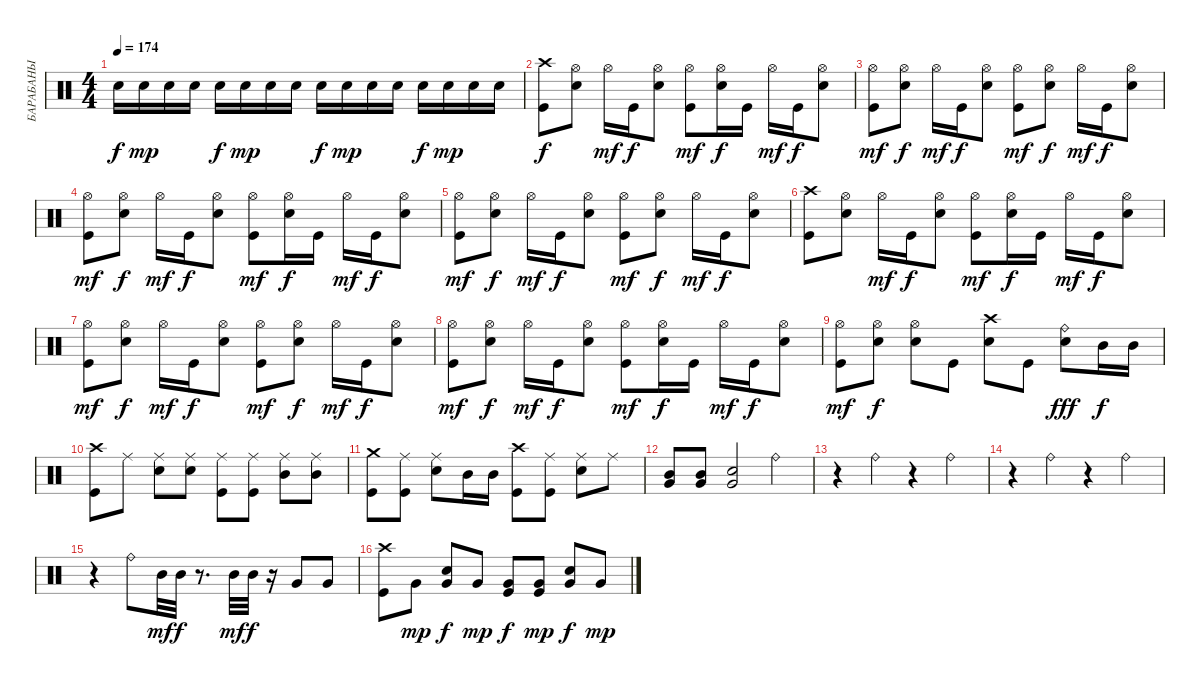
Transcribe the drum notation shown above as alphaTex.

\track ("БАРАБАНЫ" "БАРАБАНЫ") {instrument percussion}
\staff {score}
\articulation defaults
\ts (4 4)
\tempo 174
\clef neutral
\ks c "Electric Snare (hit)".16{dy f} "Electric Snare (hit)".16{dy mp} "Electric Snare (hit)".16 "Electric Snare (hit)".16 "Electric Snare (hit)".16{dy f} "Electric Snare (hit)".16{dy mp} "Electric Snare (hit)".16 "Electric Snare (hit)".16 "Electric Snare (hit)".16{dy f} "Electric Snare (hit)".16{dy mp} "Electric Snare (hit)".16 "Electric Snare (hit)".16 "Electric Snare (hit)".16{dy f} "Electric Snare (hit)".16{dy mp} "Electric Snare (hit)".16 "Electric Snare (hit)".16
|
("Crash high (hit)" "Kick (hit)").8{dy f} ("Hi-Hat (open)" "Electric Snare (hit)").8 "Hi-Hat (open)".16{dy mf} "Kick (hit)".16{dy f} ("Hi-Hat (open)" "Electric Snare (hit)").8 ("Hi-Hat (open)" "Kick (hit)").8{dy mf} ("Hi-Hat (open)" "Electric Snare (hit)").16{dy f} "Kick (hit)".16 "Hi-Hat (open)".16{dy mf} "Kick (hit)".16{dy f} ("Hi-Hat (open)" "Electric Snare (hit)").8 |
("Hi-Hat (open)" "Kick (hit)").8{dy mf} ("Hi-Hat (open)" "Electric Snare (hit)").8{dy f} "Hi-Hat (open)".16{dy mf} "Kick (hit)".16{dy f} ("Hi-Hat (open)" "Electric Snare (hit)").8 ("Hi-Hat (open)" "Kick (hit)").8{dy mf} ("Hi-Hat (open)" "Electric Snare (hit)").8{dy f} "Hi-Hat (open)".16{dy mf} "Kick (hit)".16{dy f} ("Hi-Hat (open)" "Electric Snare (hit)").8 |
("Hi-Hat (open)" "Kick (hit)").8{dy mf} ("Hi-Hat (open)" "Electric Snare (hit)").8{dy f} "Hi-Hat (open)".16{dy mf} "Kick (hit)".16{dy f} ("Hi-Hat (open)" "Electric Snare (hit)").8 ("Hi-Hat (open)" "Kick (hit)").8{dy mf} ("Hi-Hat (open)" "Electric Snare (hit)").16{dy f} "Kick (hit)".16 "Hi-Hat (open)".16{dy mf} "Kick (hit)".16{dy f} ("Hi-Hat (open)" "Electric Snare (hit)").8 |
("Hi-Hat (open)" "Kick (hit)").8{dy mf} ("Hi-Hat (open)" "Electric Snare (hit)").8{dy f} "Hi-Hat (open)".16{dy mf} "Kick (hit)".16{dy f} ("Hi-Hat (open)" "Electric Snare (hit)").8 ("Hi-Hat (open)" "Kick (hit)").8{dy mf} ("Hi-Hat (open)" "Electric Snare (hit)").8{dy f} "Hi-Hat (open)".16{dy mf} "Kick (hit)".16{dy f} ("Hi-Hat (open)" "Electric Snare (hit)").8 |
("Crash high (hit)" "Kick (hit)").8 ("Hi-Hat (open)" "Electric Snare (hit)").8 "Hi-Hat (open)".16{dy mf} "Kick (hit)".16{dy f} ("Hi-Hat (open)" "Electric Snare (hit)").8 ("Hi-Hat (open)" "Kick (hit)").8{dy mf} ("Hi-Hat (open)" "Electric Snare (hit)").16{dy f} "Kick (hit)".16 "Hi-Hat (open)".16{dy mf} "Kick (hit)".16{dy f} ("Hi-Hat (open)" "Electric Snare (hit)").8 |
("Hi-Hat (open)" "Kick (hit)").8{dy mf} ("Hi-Hat (open)" "Electric Snare (hit)").8{dy f} "Hi-Hat (open)".16{dy mf} "Kick (hit)".16{dy f} ("Hi-Hat (open)" "Electric Snare (hit)").8 ("Hi-Hat (open)" "Kick (hit)").8{dy mf} ("Hi-Hat (open)" "Electric Snare (hit)").8{dy f} "Hi-Hat (open)".16{dy mf} "Kick (hit)".16{dy f} ("Hi-Hat (open)" "Electric Snare (hit)").8 |
("Hi-Hat (open)" "Kick (hit)").8{dy mf} ("Hi-Hat (open)" "Electric Snare (hit)").8{dy f} "Hi-Hat (open)".16{dy mf} "Kick (hit)".16{dy f} ("Hi-Hat (open)" "Electric Snare (hit)").8 ("Hi-Hat (open)" "Kick (hit)").8{dy mf} ("Hi-Hat (open)" "Electric Snare (hit)").16{dy f} "Kick (hit)".16 "Hi-Hat (open)".16{dy mf} "Kick (hit)".16{dy f} ("Hi-Hat (open)" "Electric Snare (hit)").8 |
("Hi-Hat (open)" "Kick (hit)").8{dy mf} ("Hi-Hat (open)" "Electric Snare (hit)").8{dy f} ("Hi-Hat (open)" "Electric Snare (hit)").8 "Kick (hit)".8 ("Crash high (hit)" "Electric Snare (hit)").8 "Kick (hit)".8 ("Ride (bell)" "Electric Snare (hit)").8{dy fff} "Mid Tom (hit)".16{dy f} "Mid Tom (hit)".16 |
("Crash high (hit)" "Kick (hit)").8 "Ride (middle)".8 ("Ride (middle)" "Electric Snare (hit)").8 ("Ride (middle)" "Electric Snare (hit)").8 ("Ride (middle)" "Kick (hit)").8 ("Ride (middle)" "Kick (hit)").8 ("Ride (middle)" "Mid Tom (hit)").8 ("Ride (middle)" "Mid Tom (hit)").8 |
("Crash medium (hit)" "Kick (hit)").8 ("Ride (middle)" "Kick (hit)").8 ("Ride (middle)" "Electric Snare (hit)").8 "Mid Tom (hit)".16 "Mid Tom (hit)".16 ("Crash high (hit)" "Kick (hit)").8 ("Ride (middle)" "Kick (hit)").8 ("Ride (middle)" "Electric Snare (hit)").8 "Ride (middle)".8 |
("Very Low Tom (hit)" "Mid Tom (hit)").8 ("Very Low Tom (hit)" "Mid Tom (hit)").8 ("Very Low Tom (hit)" "Electric Snare (hit)").2 "Ride (bell)".4 |
r.4 "Ride (bell)".4 r.4 "Ride (bell)".4 |
r.4 "Ride (bell)".4 r.4 "Ride (bell)".4 |
r.4 "Ride (bell)".8 "Mid Tom (hit)".32{dy mf} "Mid Tom (hit)".32{dy f} r.8{d} "Mid Tom (hit)".32{dy mf} "Mid Tom (hit)".32{dy f} r.16 "Very Low Tom (hit)".8 "Very Low Tom (hit)".8 |
("Crash high (hit)" "Kick (hit)").8 "Very Low Tom (hit)".8{dy mp} ("Very Low Tom (hit)" "Electric Snare (hit)").8{dy f} "Very Low Tom (hit)".8{dy mp} ("Very Low Tom (hit)" "Kick (hit)").8{dy f} ("Very Low Tom (hit)" "Kick (hit)").8{dy mp} ("Very Low Tom (hit)" "Electric Snare (hit)").8{dy f} "Very Low Tom (hit)".8{dy mp}
